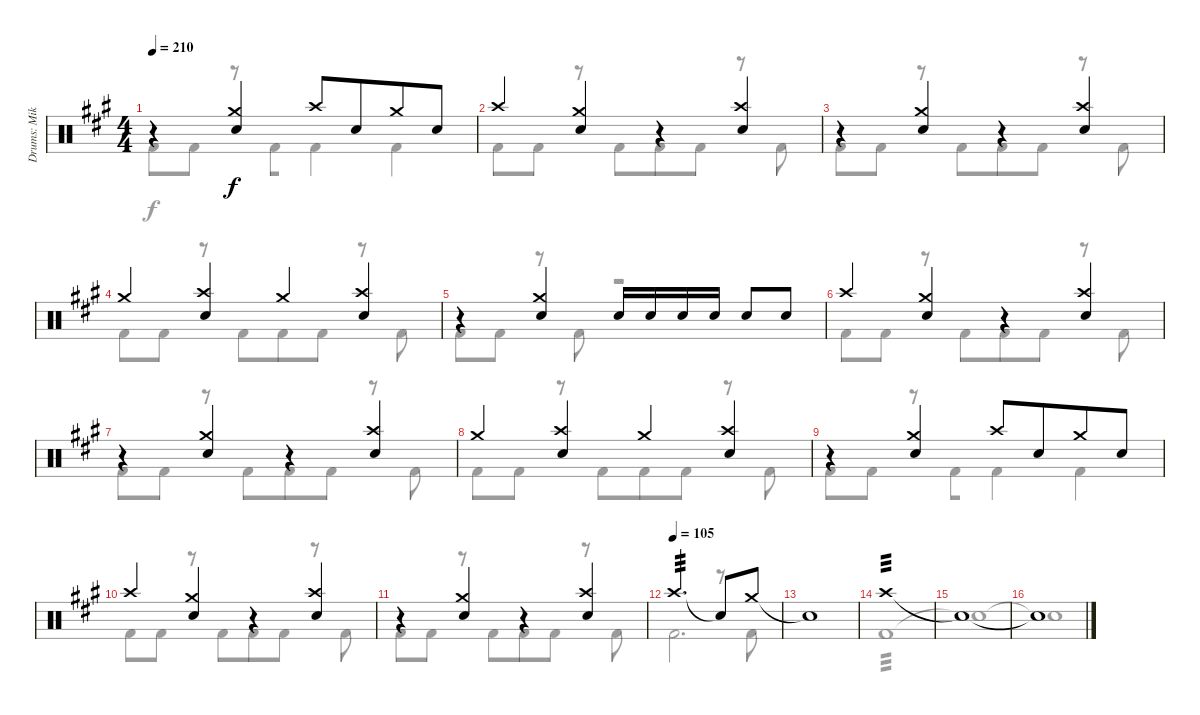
\track ("Drums: Mikkey" "Drums: Mik") {instrument percussion}
\staff {score}
\articulation defaults
\voice
\ts (4 4)
\tempo 210
\clef neutral
\ks a
r.4{dy f} ("Crash medium (hit)" "Snare (hit) 2").4 "Crash high (hit)".8 "Snare (hit) 2".8{beam merge} "Crash medium (hit)".8 "Snare (hit) 2".8 |
"Crash high (hit)".4 ("Crash medium (hit)" "Snare (hit) 2").4 r.4 ("Crash high (hit)" "Snare (hit) 2").4 |
r.4 ("Crash medium (hit)" "Snare (hit) 2").4 r.4 ("Crash high (hit)" "Snare (hit) 2").4 |
"Crash medium (hit)".4 ("Crash high (hit)" "Snare (hit) 2").4 "Crash medium (hit)".4 ("Crash high (hit)" "Snare (hit) 2").4 |
r.4 ("Crash medium (hit)" "Snare (hit) 2").4 "Snare (hit) 2".16{beam merge} "Snare (hit) 2".16 "Snare (hit) 2".16 "Snare (hit) 2".16 "Snare (hit) 2".8 "Snare (hit) 2".8 |
"Crash high (hit)".4 ("Crash medium (hit)" "Snare (hit) 2").4 r.4 ("Crash high (hit)" "Snare (hit) 2").4 |
r.4 ("Crash medium (hit)" "Snare (hit) 2").4 r.4 ("Crash high (hit)" "Snare (hit) 2").4 |
"Crash medium (hit)".4 ("Crash high (hit)" "Snare (hit) 2").4 "Crash medium (hit)".4 ("Crash high (hit)" "Snare (hit) 2").4 |
r.4 ("Crash medium (hit)" "Snare (hit) 2").4 "Crash high (hit)".8 "Snare (hit) 2".8{beam merge} "Crash medium (hit)".8 "Snare (hit) 2".8 |
"Crash high (hit)".4 ("Crash medium (hit)" "Snare (hit) 2").4 r.4 ("Crash high (hit)" "Snare (hit) 2").4 |
r.4 ("Crash medium (hit)" "Snare (hit) 2").4 r.4 ("Crash high (hit)" "Snare (hit) 2").4 |
\tempo (105)
"Crash high (hit)".2{d tp 3} "Snare (hit)"{t}.8 "Crash medium (hit)".8 |
"Snare (hit)"{t}.1 |
"Crash high (hit)".1{tp 3} |
"Snare (hit)"{t}.1 |
"Snare (hit)"{t}.1
\voice
\clef neutral
\ottava regular
\simile none
\ks a "Kick (hit) 2".8{dy f} "Kick (hit) 2".8
r.8 "Kick (hit) 2".8{beam merge} "Kick (hit) 2".4 "Kick (hit) 2".4 |
"Kick (hit) 2".8 "Kick (hit) 2".8 r.8 "Kick (hit) 2".8{beam merge} "Kick (hit) 2".8 "Kick (hit) 2".8 r.8 "Kick (hit) 2".8 |
"Kick (hit) 2".8 "Kick (hit) 2".8 r.8 "Kick (hit) 2".8{beam merge} "Kick (hit) 2".8 "Kick (hit) 2".8 r.8 "Kick (hit) 2".8 |
"Kick (hit) 2".8 "Kick (hit) 2".8 r.8 "Kick (hit) 2".8{beam merge} "Kick (hit) 2".8 "Kick (hit) 2".8 r.8 "Kick (hit) 2".8 |
"Kick (hit) 2".8 "Kick (hit) 2".8 r.8 "Kick (hit) 2".8{beam merge} r.2 |
"Kick (hit) 2".8 "Kick (hit) 2".8 r.8 "Kick (hit) 2".8{beam merge} "Kick (hit) 2".8 "Kick (hit) 2".8 r.8 "Kick (hit) 2".8 |
"Kick (hit) 2".8 "Kick (hit) 2".8 r.8 "Kick (hit) 2".8{beam merge} "Kick (hit) 2".8 "Kick (hit) 2".8 r.8 "Kick (hit) 2".8 |
"Kick (hit) 2".8 "Kick (hit) 2".8 r.8 "Kick (hit) 2".8{beam merge} "Kick (hit) 2".8 "Kick (hit) 2".8 r.8 "Kick (hit) 2".8 |
"Kick (hit) 2".8 "Kick (hit) 2".8 r.8 "Kick (hit) 2".8{beam merge} "Kick (hit) 2".4 "Kick (hit) 2".4 |
"Kick (hit) 2".8 "Kick (hit) 2".8 r.8 "Kick (hit) 2".8{beam merge} "Kick (hit) 2".8 "Kick (hit) 2".8 r.8 "Kick (hit) 2".8 |
"Kick (hit) 2".8 "Kick (hit) 2".8 r.8 "Kick (hit) 2".8{beam merge} "Kick (hit) 2".8 "Kick (hit) 2".8 r.8 "Kick (hit) 2".8 |
"Kick (hit) 2".2{d} r.8 "Kick (hit) 2".8 |
|
"Kick (hit) 2".1{tp 3} |
"Snare (hit)"{t}.1 |
"Snare (hit)"{t}.1
